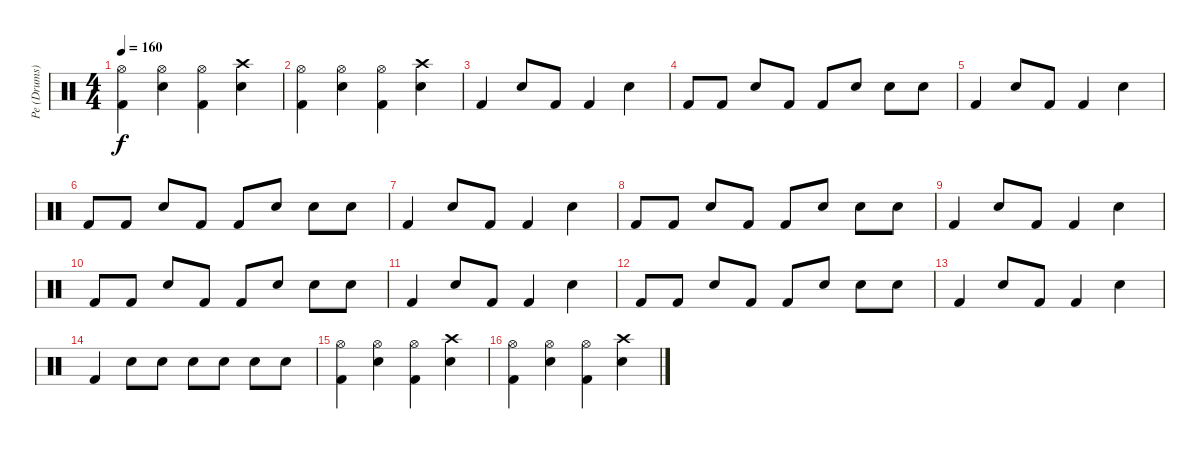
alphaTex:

\track ("Pe (Drums)" "Pe (Drums)") {instrument percussion}
\staff {score}
\articulation defaults
\ts (4 4)
\tempo 160
\clef neutral
\ks c
("Hi-Hat (open)" "Kick (hit) 2").4{dy f} ("Hi-Hat (open)" "Snare (hit) 2").4 ("Hi-Hat (open)" "Kick (hit) 2").4 ("Crash high (hit)" "Snare (hit) 2").4 |
("Hi-Hat (open)" "Kick (hit) 2").4 ("Hi-Hat (open)" "Snare (hit) 2").4 ("Hi-Hat (open)" "Kick (hit) 2").4 ("Crash high (hit)" "Snare (hit) 2").4 |
"Kick (hit) 2".4 "Snare (hit) 2".8 "Kick (hit) 2".8 "Kick (hit) 2".4 "Snare (hit) 2".4 |
"Kick (hit) 2".8 "Kick (hit) 2".8 "Snare (hit) 2".8 "Kick (hit) 2".8 "Kick (hit) 2".8 "Snare (hit) 2".8 "Snare (hit) 2".8 "Snare (hit) 2".8 |
"Kick (hit) 2".4 "Snare (hit) 2".8 "Kick (hit) 2".8 "Kick (hit) 2".4 "Snare (hit) 2".4 |
"Kick (hit) 2".8 "Kick (hit) 2".8 "Snare (hit) 2".8 "Kick (hit) 2".8 "Kick (hit) 2".8 "Snare (hit) 2".8 "Snare (hit) 2".8 "Snare (hit) 2".8 |
"Kick (hit) 2".4 "Snare (hit) 2".8 "Kick (hit) 2".8 "Kick (hit) 2".4 "Snare (hit) 2".4 |
"Kick (hit) 2".8 "Kick (hit) 2".8 "Snare (hit) 2".8 "Kick (hit) 2".8 "Kick (hit) 2".8 "Snare (hit) 2".8 "Snare (hit) 2".8 "Snare (hit) 2".8 |
"Kick (hit) 2".4 "Snare (hit) 2".8 "Kick (hit) 2".8 "Kick (hit) 2".4 "Snare (hit) 2".4 |
"Kick (hit) 2".8 "Kick (hit) 2".8 "Snare (hit) 2".8 "Kick (hit) 2".8 "Kick (hit) 2".8 "Snare (hit) 2".8 "Snare (hit) 2".8 "Snare (hit) 2".8 |
"Kick (hit) 2".4 "Snare (hit) 2".8 "Kick (hit) 2".8 "Kick (hit) 2".4 "Snare (hit) 2".4 |
"Kick (hit) 2".8 "Kick (hit) 2".8 "Snare (hit) 2".8 "Kick (hit) 2".8 "Kick (hit) 2".8 "Snare (hit) 2".8 "Snare (hit) 2".8 "Snare (hit) 2".8 |
"Kick (hit) 2".4 "Snare (hit) 2".8 "Kick (hit) 2".8 "Kick (hit) 2".4 "Snare (hit) 2".4 |
"Kick (hit) 2".4 "Snare (hit) 2".8 "Snare (hit) 2".8 "Snare (hit) 2".8 "Snare (hit) 2".8 "Snare (hit) 2".8 "Snare (hit) 2".8 |
("Hi-Hat (open)" "Kick (hit) 2").4 ("Hi-Hat (open)" "Snare (hit) 2").4 ("Hi-Hat (open)" "Kick (hit) 2").4 ("Crash high (hit)" "Snare (hit) 2").4 |
("Hi-Hat (open)" "Kick (hit) 2").4 ("Hi-Hat (open)" "Snare (hit) 2").4 ("Hi-Hat (open)" "Kick (hit) 2").4 ("Crash high (hit)" "Snare (hit) 2").4
